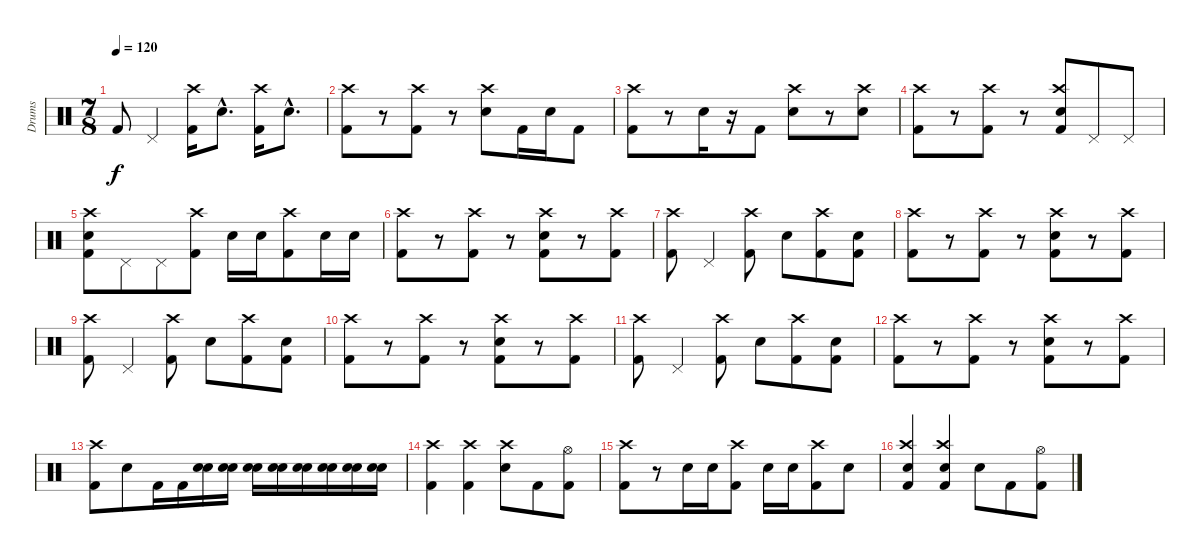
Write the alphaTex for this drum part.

\track ("Drums" "Drums") {instrument percussion}
\staff {score}
\articulation defaults
\ts (7 8)
\tempo 120
\clef neutral
\ks c "Kick (hit) 2".8{dy f} "Pedal Hi-Hat (hit)".4
("Crash high (hit)" "Kick (hit) 2").16 "Electric Snare (hit)"{hac}.8{d} ("Crash high (hit)" "Kick (hit) 2").16 "Electric Snare (hit)"{hac}.8{d} |
("Crash high (hit)" "Kick (hit) 2").8 r.8 ("Crash high (hit)" "Kick (hit) 2").8 r.8 ("Crash high (hit)" "Electric Snare (hit)").8 "Kick (hit) 2".16 "Electric Snare (hit)".16 "Kick (hit) 2".8 |
("Crash high (hit)" "Kick (hit) 2").8 r.8 "Electric Snare (hit)".16 r.16 "Kick (hit) 2".8 ("Crash high (hit)" "Electric Snare (hit)").8 r.8 ("Crash high (hit)" "Electric Snare (hit)").8 |
("Crash high (hit)" "Kick (hit) 2").8 r.8 ("Crash high (hit)" "Kick (hit) 2").8 r.8 ("Crash high (hit)" "Kick (hit) 2" "Electric Snare (hit)").8 "Pedal Hi-Hat (hit)".8 "Pedal Hi-Hat (hit)".8 |
("Crash high (hit)" "Electric Snare (hit)" "Kick (hit) 2").8 "Pedal Hi-Hat (hit)".8 "Pedal Hi-Hat (hit)".8 ("Crash high (hit)" "Kick (hit) 2").8 "Electric Snare (hit)".16 "Electric Snare (hit)".16 ("Crash high (hit)" "Kick (hit) 2").8 "Electric Snare (hit)".16 "Electric Snare (hit)".16 |
("Crash high (hit)" "Kick (hit) 2").8 r.8 ("Crash high (hit)" "Kick (hit) 2").8 r.8 ("Crash high (hit)" "Kick (hit) 2" "Electric Snare (hit)").8 r.8 ("Crash high (hit)" "Kick (hit) 2").8 |
("Crash high (hit)" "Kick (hit) 2").8 "Pedal Hi-Hat (hit)".4 ("Crash high (hit)" "Kick (hit) 2").8 "Electric Snare (hit)".8 ("Crash high (hit)" "Kick (hit) 2").8 ("Electric Snare (hit)" "Kick (hit) 2").8 |
("Crash high (hit)" "Kick (hit) 2").8 r.8 ("Crash high (hit)" "Kick (hit) 2").8 r.8 ("Crash high (hit)" "Kick (hit) 2" "Electric Snare (hit)").8 r.8 ("Crash high (hit)" "Kick (hit) 2").8 |
("Crash high (hit)" "Kick (hit) 2").8 "Pedal Hi-Hat (hit)".4 ("Crash high (hit)" "Kick (hit) 2").8 "Electric Snare (hit)".8 ("Crash high (hit)" "Kick (hit) 2").8 ("Electric Snare (hit)" "Kick (hit) 2").8 |
("Crash high (hit)" "Kick (hit) 2").8 r.8 ("Crash high (hit)" "Kick (hit) 2").8 r.8 ("Crash high (hit)" "Kick (hit) 2" "Electric Snare (hit)").8 r.8 ("Crash high (hit)" "Kick (hit) 2").8 |
("Crash high (hit)" "Kick (hit) 2").8 "Pedal Hi-Hat (hit)".4 ("Crash high (hit)" "Kick (hit) 2").8 "Electric Snare (hit)".8 ("Crash high (hit)" "Kick (hit) 2").8 ("Electric Snare (hit)" "Kick (hit) 2").8 |
("Crash high (hit)" "Kick (hit) 2").8 r.8 ("Crash high (hit)" "Kick (hit) 2").8 r.8 ("Crash high (hit)" "Kick (hit) 2" "Electric Snare (hit)").8 r.8 ("Crash high (hit)" "Kick (hit) 2").8 |
("Crash high (hit)" "Kick (hit) 2").8 "Electric Snare (hit)".8 "Kick (hit) 2".16 "Kick (hit) 2".16 ("Electric Snare (hit)" "Snare (hit) 2").16 ("Electric Snare (hit)" "Snare (hit) 2").16 ("Electric Snare (hit)" "Snare (hit) 2").16 ("Electric Snare (hit)" "Snare (hit) 2").16 ("Electric Snare (hit)" "Snare (hit) 2").16 ("Electric Snare (hit)" "Snare (hit) 2").16 ("Electric Snare (hit)" "Snare (hit) 2").16 ("Electric Snare (hit)" "Snare (hit) 2").16 |
("Crash high (hit)" "Kick (hit) 2").4 ("Crash high (hit)" "Kick (hit) 2").4 ("Crash high (hit)" "Electric Snare (hit)").8 "Kick (hit) 2".8 ("Hi-Hat (open)" "Kick (hit) 2").8 |
("Crash high (hit)" "Kick (hit) 2").8 r.8 "Electric Snare (hit)".16 "Electric Snare (hit)".16 ("Crash high (hit)" "Kick (hit) 2").8 "Electric Snare (hit)".16 "Electric Snare (hit)".16 ("Crash high (hit)" "Kick (hit) 2").8 "Electric Snare (hit)".8 |
("Crash high (hit)" "Electric Snare (hit)" "Kick (hit) 2").4 ("Crash high (hit)" "Electric Snare (hit)" "Kick (hit) 2").4 "Electric Snare (hit)".8 "Kick (hit) 2".8 ("Hi-Hat (open)" "Kick (hit) 2").8
